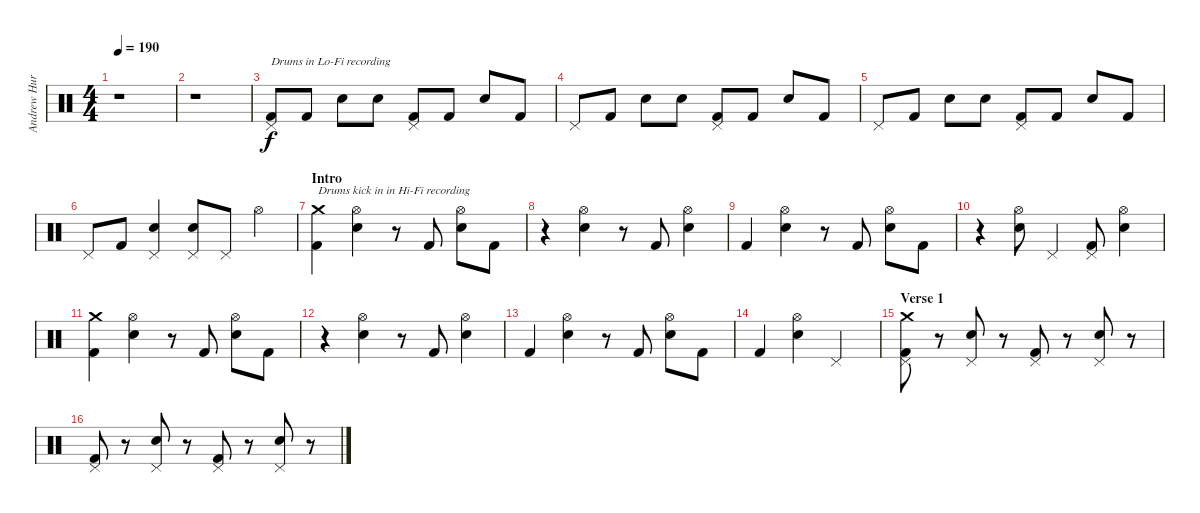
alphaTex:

\track ("Andrew Hurley (Drums)" "Andrew Hur") {instrument percussion}
\staff {score}
\articulation defaults
\ts (4 4)
\tempo 190
\clef neutral
\ks c
r.1{dy f} |
r.1 |
("Pedal Hi-Hat (hit)" "Kick (hit) 2").8{txt "Drums in Lo-Fi recording" volume 11} "Kick (hit) 2".8 "Electric Snare (hit)".8 "Electric Snare (hit)".8 ("Pedal Hi-Hat (hit)" "Kick (hit) 2").8 "Kick (hit) 2".8 "Electric Snare (hit)".8 "Kick (hit) 2".8 |
"Pedal Hi-Hat (hit)".8{volume 11} "Kick (hit) 2".8 "Electric Snare (hit)".8 "Electric Snare (hit)".8 ("Pedal Hi-Hat (hit)" "Kick (hit) 2").8 "Kick (hit) 2".8 "Electric Snare (hit)".8 "Kick (hit) 2".8 |
"Pedal Hi-Hat (hit)".8{volume 11} "Kick (hit) 2".8 "Electric Snare (hit)".8 "Electric Snare (hit)".8 ("Pedal Hi-Hat (hit)" "Kick (hit) 2").8 "Kick (hit) 2".8 "Electric Snare (hit)".8 "Kick (hit) 2".8 |
"Pedal Hi-Hat (hit)".8{volume 11} "Kick (hit) 2".8 ("Pedal Hi-Hat (hit)" "Electric Snare (hit)").4 ("Pedal Hi-Hat (hit)" "Electric Snare (hit)").8 "Pedal Hi-Hat (hit)".8 "Hi-Hat (open)".4{volume 13} |
\section ("" "Intro")
("Crash medium (hit)" "Kick (hit) 2").4{txt "Drums kick in in Hi-Fi recording" volume 14} ("Hi-Hat (open)" "Electric Snare (hit)").4 r.8 "Kick (hit) 2".8 ("Hi-Hat (open)" "Electric Snare (hit)").8 "Kick (hit) 2".8 |
r.4 ("Hi-Hat (open)" "Electric Snare (hit)").4 r.8 "Kick (hit) 2".8 ("Hi-Hat (open)" "Electric Snare (hit)").4 |
"Kick (hit) 2".4 ("Hi-Hat (open)" "Electric Snare (hit)").4 r.8 "Kick (hit) 2".8 ("Hi-Hat (open)" "Electric Snare (hit)").8 "Kick (hit) 2".8 |
r.4 ("Hi-Hat (open)" "Electric Snare (hit)").8 "Pedal Hi-Hat (hit)".4 ("Pedal Hi-Hat (hit)" "Kick (hit) 2").8 ("Hi-Hat (open)" "Electric Snare (hit)").4 |
("Crash medium (hit)" "Kick (hit) 2").4 ("Hi-Hat (open)" "Electric Snare (hit)").4 r.8 "Kick (hit) 2".8 ("Hi-Hat (open)" "Electric Snare (hit)").8 "Kick (hit) 2".8 |
r.4 ("Hi-Hat (open)" "Electric Snare (hit)").4 r.8 "Kick (hit) 2".8 ("Hi-Hat (open)" "Electric Snare (hit)").4 |
"Kick (hit) 2".4 ("Hi-Hat (open)" "Electric Snare (hit)").4 r.8 "Kick (hit) 2".8 ("Hi-Hat (open)" "Electric Snare (hit)").8 "Kick (hit) 2".8 |
"Kick (hit) 2".4 ("Hi-Hat (open)" "Electric Snare (hit)").4 "Pedal Hi-Hat (hit)".2 |
\section ("" "Verse 1")
("Crash medium (hit)" "Pedal Hi-Hat (hit)" "Kick (hit) 2").8 r.8 ("Pedal Hi-Hat (hit)" "Electric Snare (hit)").8 r.8 ("Pedal Hi-Hat (hit)" "Kick (hit) 2").8 r.8 ("Pedal Hi-Hat (hit)" "Electric Snare (hit)").8 r.8 |
("Pedal Hi-Hat (hit)" "Kick (hit) 2").8 r.8 ("Pedal Hi-Hat (hit)" "Electric Snare (hit)").8 r.8 ("Pedal Hi-Hat (hit)" "Kick (hit) 2").8 r.8 ("Pedal Hi-Hat (hit)" "Electric Snare (hit)").8 r.8
